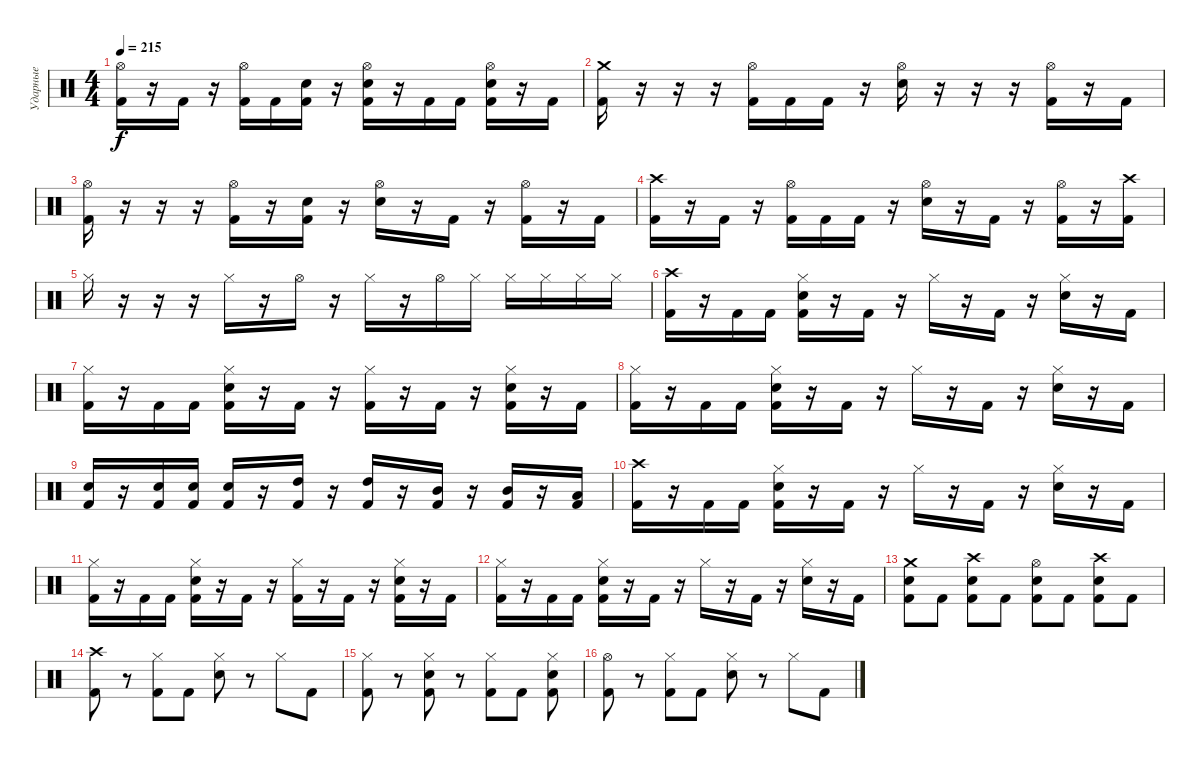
\track ("Ударные" "Ударные") {instrument percussion}
\staff {score}
\articulation defaults
\ts (4 4)
\tempo 215
\clef neutral
\ks c
("Hi-Hat (open)" "Kick (hit) 2").16{dy f} r.16 "Kick (hit) 2".16 r.16 ("Hi-Hat (open)" "Kick (hit) 2").16 "Kick (hit) 2".16 ("Snare (hit) 2" "Kick (hit) 2").16 r.16 ("Hi-Hat (open)" "Snare (hit) 2" "Kick (hit) 2").16 r.16 "Kick (hit) 2".16 "Kick (hit) 2".16 ("Hi-Hat (open)" "Snare (hit) 2" "Kick (hit) 2").16 r.16 "Kick (hit) 2".16 |
("Crash medium (hit)" "Kick (hit) 2").16 r.16 r.16 r.16 ("Hi-Hat (open)" "Kick (hit) 2").16 "Kick (hit) 2".16 "Kick (hit) 2".16 r.16 ("Hi-Hat (open)" "Snare (hit) 2").16 r.16 r.16 r.16 ("Hi-Hat (open)" "Kick (hit) 2").16 r.16 "Kick (hit) 2".16 |
("Hi-Hat (open)" "Kick (hit) 2").16 r.16 r.16 r.16 ("Hi-Hat (open)" "Kick (hit) 2").16 r.16 ("Snare (hit) 2" "Kick (hit) 2").16 r.16 ("Hi-Hat (open)" "Snare (hit) 2").16 r.16 "Kick (hit) 2".16 r.16 ("Hi-Hat (open)" "Kick (hit) 2").16 r.16 "Kick (hit) 2".16 |
("Crash high (hit)" "Kick (hit) 2").16 r.16 "Kick (hit) 2".16 r.16 ("Hi-Hat (open)" "Kick (hit) 2").16 "Kick (hit) 2".16 "Kick (hit) 2".16 r.16 ("Hi-Hat (open)" "Snare (hit) 2").16 r.16 "Kick (hit) 2".16 r.16 ("Hi-Hat (open)" "Kick (hit) 2").16 r.16 ("Crash high (hit)" "Kick (hit) 2").16 |
"Hi-Hat (closed)".16 r.16 r.16 r.16 "Hi-Hat (closed)".16 r.16 "Hi-Hat (open)".16 r.16 "Hi-Hat (closed)".16 r.16 "Hi-Hat (open)".16 "Hi-Hat (closed)".16 "Hi-Hat (closed)".16 "Hi-Hat (closed)".16 "Hi-Hat (closed)".16 "Hi-Hat (closed)".16 |
("Crash high (hit)" "Kick (hit) 2").16 r.16 "Kick (hit) 2".16 "Kick (hit) 2".16 ("Hi-Hat (closed)" "Snare (hit) 2" "Kick (hit) 2").16 r.16 "Kick (hit) 2".16 r.16 "Hi-Hat (closed)".16 r.16 "Kick (hit) 2".16 r.16 ("Hi-Hat (closed)" "Snare (hit) 2").16 r.16 "Kick (hit) 2".16 |
("Hi-Hat (closed)" "Kick (hit) 2").16 r.16 "Kick (hit) 2".16 "Kick (hit) 2".16 ("Hi-Hat (closed)" "Snare (hit) 2" "Kick (hit) 2").16 r.16 "Kick (hit) 2".16 r.16 ("Hi-Hat (closed)" "Kick (hit) 2").16 r.16 "Kick (hit) 2".16 r.16 ("Hi-Hat (closed)" "Snare (hit) 2" "Kick (hit) 2").16 r.16 "Kick (hit) 2".16 |
("Hi-Hat (closed)" "Kick (hit) 2").16 r.16 "Kick (hit) 2".16 "Kick (hit) 2".16 ("Hi-Hat (closed)" "Snare (hit) 2" "Kick (hit) 2").16 r.16 "Kick (hit) 2".16 r.16 "Hi-Hat (closed)".16 r.16 "Kick (hit) 2".16 r.16 ("Hi-Hat (closed)" "Snare (hit) 2").16 r.16 "Kick (hit) 2".16 |
("Snare (hit) 2" "Kick (hit) 2").16 r.16 ("Snare (hit) 2" "Kick (hit) 2").16 ("Snare (hit) 2" "Kick (hit) 2").16 ("Snare (hit) 2" "Kick (hit) 2").16 r.16 ("High Tom (hit)" "Kick (hit) 2").16 r.16 ("High Tom (hit)" "Kick (hit) 2").16 r.16 ("Mid Tom (hit)" "Kick (hit) 2").16 r.16 ("Mid Tom (hit)" "Kick (hit) 2").16 r.16 ("Low Tom (hit)" "Kick (hit) 2").16 |
("Crash high (hit)" "Kick (hit) 2").16 r.16 "Kick (hit) 2".16 "Kick (hit) 2".16 ("Hi-Hat (closed)" "Snare (hit) 2" "Kick (hit) 2").16 r.16 "Kick (hit) 2".16 r.16 "Hi-Hat (closed)".16 r.16 "Kick (hit) 2".16 r.16 ("Hi-Hat (closed)" "Snare (hit) 2").16 r.16 "Kick (hit) 2".16 |
("Hi-Hat (closed)" "Kick (hit) 2").16 r.16 "Kick (hit) 2".16 "Kick (hit) 2".16 ("Hi-Hat (closed)" "Snare (hit) 2" "Kick (hit) 2").16 r.16 "Kick (hit) 2".16 r.16 ("Hi-Hat (closed)" "Kick (hit) 2").16 r.16 "Kick (hit) 2".16 r.16 ("Hi-Hat (closed)" "Snare (hit) 2" "Kick (hit) 2").16 r.16 "Kick (hit) 2".16 |
("Hi-Hat (closed)" "Kick (hit) 2").16 r.16 "Kick (hit) 2".16 "Kick (hit) 2".16 ("Hi-Hat (closed)" "Snare (hit) 2" "Kick (hit) 2").16 r.16 "Kick (hit) 2".16 r.16 "Hi-Hat (closed)".16 r.16 "Kick (hit) 2".16 r.16 ("Hi-Hat (closed)" "Snare (hit) 2").16 r.16 "Kick (hit) 2".16 |
("Crash medium (hit)" "Snare (hit) 2" "Kick (hit) 2").8 "Kick (hit) 2".8 ("Crash high (hit)" "Snare (hit) 2" "Kick (hit) 2").8 "Kick (hit) 2".8 ("Hi-Hat (open)" "Snare (hit) 2" "Kick (hit) 2").8 "Kick (hit) 2".8 ("Crash high (hit)" "Snare (hit) 2" "Kick (hit) 2").8 "Kick (hit) 2".8 |
("Crash high (hit)" "Kick (hit) 2").8 r.8 ("Hi-Hat (closed)" "Kick (hit) 2").8 "Kick (hit) 2".8 ("Hi-Hat (closed)" "Snare (hit) 2").8 r.8 "Hi-Hat (closed)".8 "Kick (hit) 2".8 |
("Hi-Hat (closed)" "Kick (hit) 2").8 r.8 ("Hi-Hat (closed)" "Snare (hit) 2" "Kick (hit) 2").8 r.8 ("Hi-Hat (closed)" "Kick (hit) 2").8 "Kick (hit) 2".8 ("Hi-Hat (closed)" "Snare (hit) 2" "Kick (hit) 2").8 |
("Hi-Hat (open)" "Kick (hit) 2").8 r.8 ("Hi-Hat (closed)" "Kick (hit) 2").8 "Kick (hit) 2".8 ("Hi-Hat (closed)" "Snare (hit) 2").8 r.8 "Hi-Hat (closed)".8 "Kick (hit) 2".8
